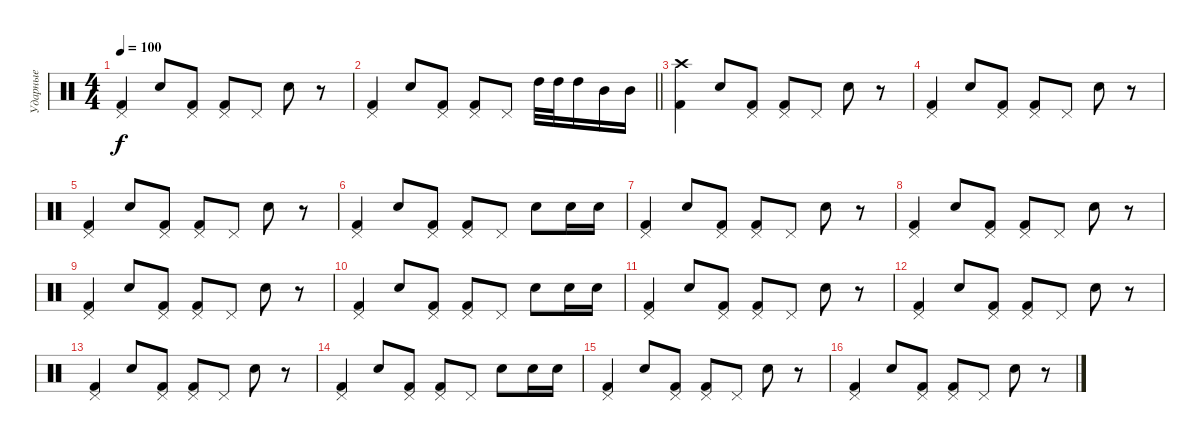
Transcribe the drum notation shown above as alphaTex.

\track ("Ударные" "Ударные") {instrument percussion}
\staff {score}
\articulation defaults
\ts (4 4)
\tempo 100
\clef neutral
\ks c
("Pedal Hi-Hat (hit)" "Kick (hit) 2").4{dy f} "Snare (hit) 2".8 ("Pedal Hi-Hat (hit)" "Kick (hit) 2").8 ("Pedal Hi-Hat (hit)" "Kick (hit) 2").8 "Pedal Hi-Hat (hit)".8 "Snare (hit) 2".8 r.8 |
\barLineRight lightlight
("Pedal Hi-Hat (hit)" "Kick (hit) 2").4 "Snare (hit) 2".8 ("Pedal Hi-Hat (hit)" "Kick (hit) 2").8 ("Pedal Hi-Hat (hit)" "Kick (hit) 2").8 "Pedal Hi-Hat (hit)".8 "High Tom (hit)".32 "High Tom (hit)".32 "High Tom (hit)".16 "Mid Tom (hit)".16 "Mid Tom (hit)".16 |
("Crash high (hit)" "Kick (hit) 2").4 "Snare (hit) 2".8 ("Pedal Hi-Hat (hit)" "Kick (hit) 2").8 ("Pedal Hi-Hat (hit)" "Kick (hit) 2").8 "Pedal Hi-Hat (hit)".8 "Snare (hit) 2".8 r.8 |
("Pedal Hi-Hat (hit)" "Kick (hit) 2").4 "Snare (hit) 2".8 ("Pedal Hi-Hat (hit)" "Kick (hit) 2").8 ("Pedal Hi-Hat (hit)" "Kick (hit) 2").8 "Pedal Hi-Hat (hit)".8 "Snare (hit) 2".8 r.8 |
("Pedal Hi-Hat (hit)" "Kick (hit) 2").4 "Snare (hit) 2".8 ("Pedal Hi-Hat (hit)" "Kick (hit) 2").8 ("Pedal Hi-Hat (hit)" "Kick (hit) 2").8 "Pedal Hi-Hat (hit)".8 "Snare (hit) 2".8 r.8 |
("Pedal Hi-Hat (hit)" "Kick (hit) 2").4 "Snare (hit) 2".8 ("Pedal Hi-Hat (hit)" "Kick (hit) 2").8 ("Pedal Hi-Hat (hit)" "Kick (hit) 2").8 "Pedal Hi-Hat (hit)".8 "Snare (hit) 2".8 "Snare (hit) 2".16 "Snare (hit) 2".16 |
("Pedal Hi-Hat (hit)" "Kick (hit) 2").4 "Snare (hit) 2".8 ("Pedal Hi-Hat (hit)" "Kick (hit) 2").8 ("Pedal Hi-Hat (hit)" "Kick (hit) 2").8 "Pedal Hi-Hat (hit)".8 "Snare (hit) 2".8 r.8 |
("Pedal Hi-Hat (hit)" "Kick (hit) 2").4 "Snare (hit) 2".8 ("Pedal Hi-Hat (hit)" "Kick (hit) 2").8 ("Pedal Hi-Hat (hit)" "Kick (hit) 2").8 "Pedal Hi-Hat (hit)".8 "Snare (hit) 2".8 r.8 |
("Pedal Hi-Hat (hit)" "Kick (hit) 2").4 "Snare (hit) 2".8 ("Pedal Hi-Hat (hit)" "Kick (hit) 2").8 ("Pedal Hi-Hat (hit)" "Kick (hit) 2").8 "Pedal Hi-Hat (hit)".8 "Snare (hit) 2".8 r.8 |
("Pedal Hi-Hat (hit)" "Kick (hit) 2").4 "Snare (hit) 2".8 ("Pedal Hi-Hat (hit)" "Kick (hit) 2").8 ("Pedal Hi-Hat (hit)" "Kick (hit) 2").8 "Pedal Hi-Hat (hit)".8 "Snare (hit) 2".8 "Snare (hit) 2".16 "Snare (hit) 2".16 |
("Pedal Hi-Hat (hit)" "Kick (hit) 2").4 "Snare (hit) 2".8 ("Pedal Hi-Hat (hit)" "Kick (hit) 2").8 ("Pedal Hi-Hat (hit)" "Kick (hit) 2").8 "Pedal Hi-Hat (hit)".8 "Snare (hit) 2".8 r.8 |
("Pedal Hi-Hat (hit)" "Kick (hit) 2").4 "Snare (hit) 2".8 ("Pedal Hi-Hat (hit)" "Kick (hit) 2").8 ("Pedal Hi-Hat (hit)" "Kick (hit) 2").8 "Pedal Hi-Hat (hit)".8 "Snare (hit) 2".8 r.8 |
("Pedal Hi-Hat (hit)" "Kick (hit) 2").4 "Snare (hit) 2".8 ("Pedal Hi-Hat (hit)" "Kick (hit) 2").8 ("Pedal Hi-Hat (hit)" "Kick (hit) 2").8 "Pedal Hi-Hat (hit)".8 "Snare (hit) 2".8 r.8 |
("Pedal Hi-Hat (hit)" "Kick (hit) 2").4 "Snare (hit) 2".8 ("Pedal Hi-Hat (hit)" "Kick (hit) 2").8 ("Pedal Hi-Hat (hit)" "Kick (hit) 2").8 "Pedal Hi-Hat (hit)".8 "Snare (hit) 2".8 "Snare (hit) 2".16 "Snare (hit) 2".16 |
("Pedal Hi-Hat (hit)" "Kick (hit) 2").4 "Snare (hit) 2".8 ("Pedal Hi-Hat (hit)" "Kick (hit) 2").8 ("Pedal Hi-Hat (hit)" "Kick (hit) 2").8 "Pedal Hi-Hat (hit)".8 "Snare (hit) 2".8 r.8 |
("Pedal Hi-Hat (hit)" "Kick (hit) 2").4 "Snare (hit) 2".8 ("Pedal Hi-Hat (hit)" "Kick (hit) 2").8 ("Pedal Hi-Hat (hit)" "Kick (hit) 2").8 "Pedal Hi-Hat (hit)".8 "Snare (hit) 2".8 r.8
